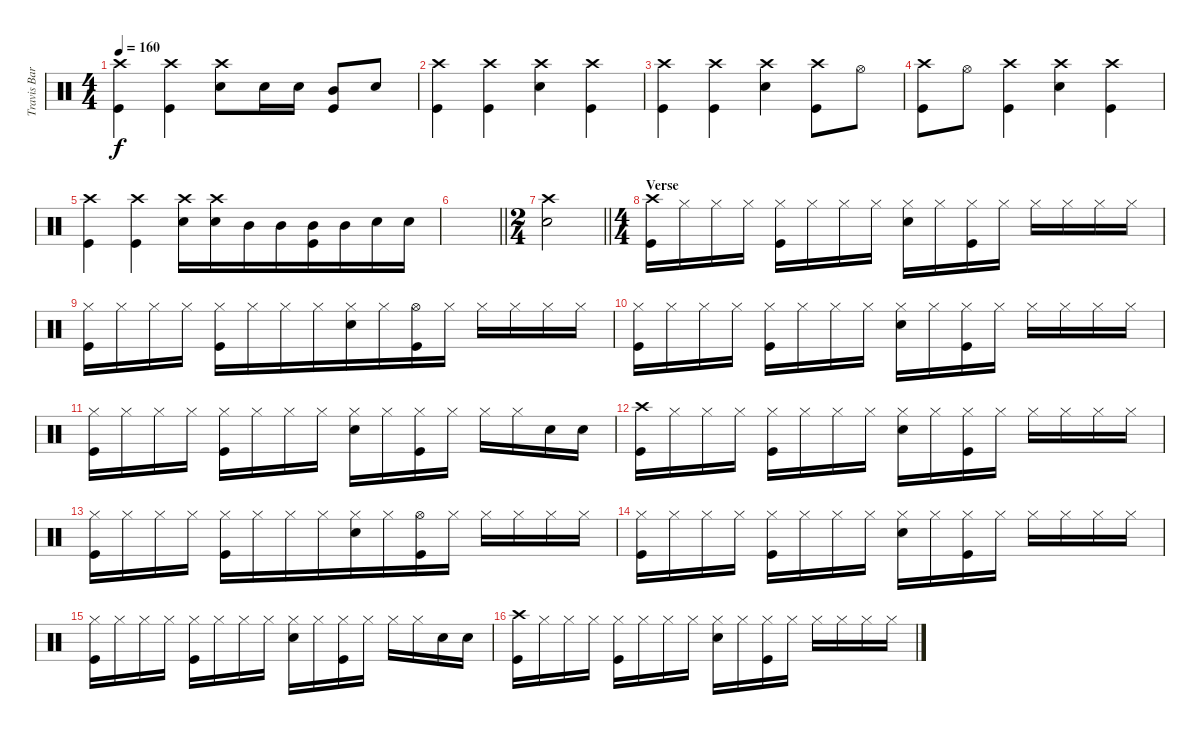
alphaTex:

\track ("Travis Barker Drums" "Travis Bar") {instrument percussion}
\staff {score}
\articulation defaults
\ts (4 4)
\tempo 160
\clef neutral
\ks c
("Crash high (hit)" "Kick (hit)").4{dy f beam merge} ("Crash high (hit)" "Kick (hit)").4 ("Crash high (hit)" "Snare (hit) 2").8 "Snare (hit) 2".16 "Snare (hit) 2".16 ("Mid Tom (hit)" "Kick (hit)").8 "Snare (hit) 2".8 |
("Crash high (hit)" "Kick (hit)").4{beam merge} ("Crash high (hit)" "Kick (hit)").4 ("Crash high (hit)" "Snare (hit) 2").4 ("Crash high (hit)" "Kick (hit)").4 |
("Crash high (hit)" "Kick (hit)").4{beam merge} ("Crash high (hit)" "Kick (hit)").4 ("Crash high (hit)" "Snare (hit) 2").4 ("Crash high (hit)" "Kick (hit)").8 "Hi-Hat (open)".8 |
("Crash high (hit)" "Kick (hit)").8{beam merge} "Hi-Hat (open)".8 ("Crash high (hit)" "Kick (hit)").4 ("Crash high (hit)" "Snare (hit) 2").4 ("Crash high (hit)" "Kick (hit)").4 |
("Crash high (hit)" "Kick (hit)").4{beam merge} ("Crash high (hit)" "Kick (hit)").4 ("Crash high (hit)" "Snare (hit) 2").16 ("Crash high (hit)" "Snare (hit) 2").16 "Mid Tom (hit)".16{beam merge} "Mid Tom (hit)".16{beam merge} ("Kick (hit)" "Mid Tom (hit)").16 "Mid Tom (hit)".16 "Snare (hit) 2".16 "Snare (hit) 2".16 |
\barLineRight lightlight
|
\ts (2 4)
\barLineRight lightlight
("Crash high (hit)" "Snare (hit) 2").2 |
\ts (4 4)
\section ("" "Verse")
("Crash high (hit)" "Kick (hit)").16 "Hi-Hat (closed)".16{beam merge} "Hi-Hat (closed)".16 "Hi-Hat (closed)".16 ("Hi-Hat (closed)" "Kick (hit)").16{beam merge} "Hi-Hat (closed)".16 "Hi-Hat (closed)".16 "Hi-Hat (closed)".16 ("Hi-Hat (closed)" "Snare (hit) 2").16 "Hi-Hat (closed)".16 ("Hi-Hat (closed)" "Kick (hit)").16 "Hi-Hat (closed)".16 "Hi-Hat (closed)".16{beam merge} "Hi-Hat (closed)".16 "Hi-Hat (closed)".16 "Hi-Hat (closed)".16 |
("Hi-Hat (closed)" "Kick (hit)").16 "Hi-Hat (closed)".16{beam merge} "Hi-Hat (closed)".16 "Hi-Hat (closed)".16 ("Hi-Hat (closed)" "Kick (hit)").16 "Hi-Hat (closed)".16{beam merge} "Hi-Hat (closed)".16 "Hi-Hat (closed)".16{beam merge} ("Hi-Hat (closed)" "Snare (hit) 2").16{beam merge} "Hi-Hat (closed)".16 ("Hi-Hat (open)" "Kick (hit)").16{beam merge} "Hi-Hat (closed)".16 "Hi-Hat (closed)".16{beam merge} "Hi-Hat (closed)".16{beam merge} "Hi-Hat (closed)".16{beam merge} "Hi-Hat (closed)".16 |
("Hi-Hat (closed)" "Kick (hit)").16{beam merge} "Hi-Hat (closed)".16{beam merge} "Hi-Hat (closed)".16{beam merge} "Hi-Hat (closed)".16 ("Hi-Hat (closed)" "Kick (hit)").16 "Hi-Hat (closed)".16{beam merge} "Hi-Hat (closed)".16{beam merge} "Hi-Hat (closed)".16 ("Hi-Hat (closed)" "Snare (hit) 2").16 "Hi-Hat (closed)".16 ("Hi-Hat (closed)" "Kick (hit)").16 "Hi-Hat (closed)".16 "Hi-Hat (closed)".16{beam merge} "Hi-Hat (closed)".16 "Hi-Hat (closed)".16 "Hi-Hat (closed)".16 |
("Hi-Hat (closed)" "Kick (hit)").16 "Hi-Hat (closed)".16{beam merge} "Hi-Hat (closed)".16 "Hi-Hat (closed)".16 ("Hi-Hat (closed)" "Kick (hit)").16 "Hi-Hat (closed)".16{beam merge} "Hi-Hat (closed)".16 "Hi-Hat (closed)".16 ("Hi-Hat (closed)" "Snare (hit) 2").16 "Hi-Hat (closed)".16 ("Hi-Hat (closed)" "Kick (hit)").16 "Hi-Hat (closed)".16 "Hi-Hat (closed)".16{beam merge} "Hi-Hat (closed)".16 "Snare (hit) 2".16 "Snare (hit) 2".16 |
("Crash high (hit)" "Kick (hit)").16 "Hi-Hat (closed)".16{beam merge} "Hi-Hat (closed)".16 "Hi-Hat (closed)".16 ("Hi-Hat (closed)" "Kick (hit)").16 "Hi-Hat (closed)".16{beam merge} "Hi-Hat (closed)".16 "Hi-Hat (closed)".16 ("Hi-Hat (closed)" "Snare (hit) 2").16 "Hi-Hat (closed)".16 ("Hi-Hat (closed)" "Kick (hit)").16 "Hi-Hat (closed)".16 "Hi-Hat (closed)".16{beam merge} "Hi-Hat (closed)".16 "Hi-Hat (closed)".16 "Hi-Hat (closed)".16 |
("Hi-Hat (closed)" "Kick (hit)").16 "Hi-Hat (closed)".16{beam merge} "Hi-Hat (closed)".16 "Hi-Hat (closed)".16 ("Hi-Hat (closed)" "Kick (hit)").16 "Hi-Hat (closed)".16{beam merge} "Hi-Hat (closed)".16 "Hi-Hat (closed)".16{beam merge} ("Hi-Hat (closed)" "Snare (hit) 2").16{beam merge} "Hi-Hat (closed)".16 ("Hi-Hat (open)" "Kick (hit)").16{beam merge} "Hi-Hat (closed)".16 "Hi-Hat (closed)".16{beam merge} "Hi-Hat (closed)".16{beam merge} "Hi-Hat (closed)".16{beam merge} "Hi-Hat (closed)".16 |
("Hi-Hat (closed)" "Kick (hit)").16{beam merge} "Hi-Hat (closed)".16{beam merge} "Hi-Hat (closed)".16{beam merge} "Hi-Hat (closed)".16 ("Hi-Hat (closed)" "Kick (hit)").16 "Hi-Hat (closed)".16{beam merge} "Hi-Hat (closed)".16{beam merge} "Hi-Hat (closed)".16 ("Hi-Hat (closed)" "Snare (hit) 2").16 "Hi-Hat (closed)".16 ("Hi-Hat (closed)" "Kick (hit)").16 "Hi-Hat (closed)".16 "Hi-Hat (closed)".16{beam merge} "Hi-Hat (closed)".16 "Hi-Hat (closed)".16 "Hi-Hat (closed)".16 |
("Hi-Hat (closed)" "Kick (hit)").16 "Hi-Hat (closed)".16{beam merge} "Hi-Hat (closed)".16 "Hi-Hat (closed)".16 ("Hi-Hat (closed)" "Kick (hit)").16 "Hi-Hat (closed)".16{beam merge} "Hi-Hat (closed)".16 "Hi-Hat (closed)".16 ("Hi-Hat (closed)" "Snare (hit) 2").16 "Hi-Hat (closed)".16 ("Hi-Hat (closed)" "Kick (hit)").16 "Hi-Hat (closed)".16 "Hi-Hat (closed)".16{beam merge} "Hi-Hat (closed)".16 "Snare (hit) 2".16 "Snare (hit) 2".16 |
("Crash high (hit)" "Kick (hit)").16 "Hi-Hat (closed)".16{beam merge} "Hi-Hat (closed)".16 "Hi-Hat (closed)".16 ("Hi-Hat (closed)" "Kick (hit)").16 "Hi-Hat (closed)".16{beam merge} "Hi-Hat (closed)".16 "Hi-Hat (closed)".16 ("Hi-Hat (closed)" "Snare (hit) 2").16 "Hi-Hat (closed)".16 ("Hi-Hat (closed)" "Kick (hit)").16 "Hi-Hat (closed)".16 "Hi-Hat (closed)".16{beam merge} "Hi-Hat (closed)".16 "Hi-Hat (closed)".16 "Hi-Hat (closed)".16
